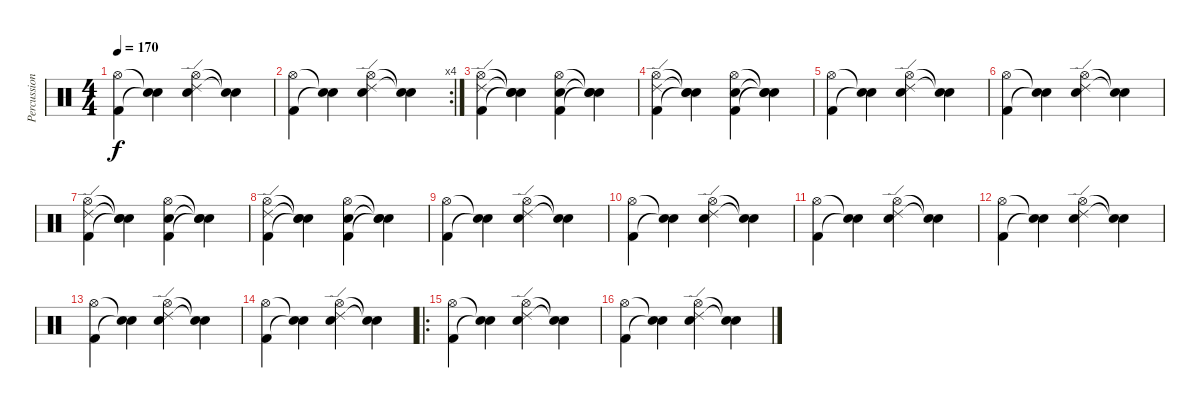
\track ("Percussion" "Percussion") {instrument percussion}
\staff {score}
\articulation defaults
\ts (4 4)
\tempo 170
\clef neutral
\ks c
("Hi-Hat (open)" "Kick (hit) 2").4{dy f} ("Electric Snare (hit)"{t} "Snare (hit)"{t}).4 ("Hi-Hat (open)" "Ride (edge) 2" "Electric Snare (hit)").4 ("Electric Snare (hit)"{t} "Snare (hit)"{t}).4 |
\rc 4
("Hi-Hat (open)" "Kick (hit) 2").4 ("Electric Snare (hit)"{t} "Snare (hit)"{t}).4 ("Hi-Hat (open)" "Ride (edge) 2" "Electric Snare (hit)").4 ("Electric Snare (hit)"{t} "Snare (hit)"{t}).4 |
("Ride (edge) 2" "Hi-Hat (open)" "Kick (hit) 2").4 ("Snare (hit)"{t} "Snare (hit)"{t} "Snare (hit)"{t}).4 ("Electric Snare (hit)" "Hi-Hat (open)" "Kick (hit) 2").4 ("Snare (hit)"{t} "Snare (hit)"{t} "Snare (hit)"{t}).4 |
("Ride (edge) 2" "Hi-Hat (open)" "Kick (hit) 2").4 ("Snare (hit)"{t} "Snare (hit)"{t} "Snare (hit)"{t}).4 ("Electric Snare (hit)" "Hi-Hat (open)" "Kick (hit) 2").4 ("Snare (hit)"{t} "Snare (hit)"{t} "Snare (hit)"{t}).4 |
("Hi-Hat (open)" "Kick (hit) 2").4 ("Electric Snare (hit)"{t} "Snare (hit)"{t}).4 ("Hi-Hat (open)" "Ride (edge) 2" "Electric Snare (hit)").4 ("Electric Snare (hit)"{t} "Snare (hit)"{t}).4 |
("Hi-Hat (open)" "Kick (hit) 2").4 ("Electric Snare (hit)"{t} "Snare (hit)"{t}).4 ("Hi-Hat (open)" "Ride (edge) 2" "Electric Snare (hit)").4 ("Electric Snare (hit)"{t} "Snare (hit)"{t}).4 |
("Ride (edge) 2" "Hi-Hat (open)" "Kick (hit) 2").4 ("Snare (hit)"{t} "Snare (hit)"{t} "Snare (hit)"{t}).4 ("Electric Snare (hit)" "Hi-Hat (open)" "Kick (hit) 2").4 ("Snare (hit)"{t} "Snare (hit)"{t} "Snare (hit)"{t}).4 |
("Ride (edge) 2" "Hi-Hat (open)" "Kick (hit) 2").4 ("Snare (hit)"{t} "Snare (hit)"{t} "Snare (hit)"{t}).4 ("Electric Snare (hit)" "Hi-Hat (open)" "Kick (hit) 2").4 ("Snare (hit)"{t} "Snare (hit)"{t} "Snare (hit)"{t}).4 |
("Hi-Hat (open)" "Kick (hit) 2").4 ("Electric Snare (hit)"{t} "Snare (hit)"{t}).4 ("Hi-Hat (open)" "Ride (edge) 2" "Electric Snare (hit)").4 ("Electric Snare (hit)"{t} "Snare (hit)"{t}).4 |
("Hi-Hat (open)" "Kick (hit) 2").4 ("Electric Snare (hit)"{t} "Snare (hit)"{t}).4 ("Hi-Hat (open)" "Ride (edge) 2" "Electric Snare (hit)").4 ("Electric Snare (hit)"{t} "Snare (hit)"{t}).4 |
("Hi-Hat (open)" "Kick (hit) 2").4 ("Electric Snare (hit)"{t} "Snare (hit)"{t}).4 ("Hi-Hat (open)" "Ride (edge) 2" "Electric Snare (hit)").4 ("Electric Snare (hit)"{t} "Snare (hit)"{t}).4 |
("Hi-Hat (open)" "Kick (hit) 2").4 ("Electric Snare (hit)"{t} "Snare (hit)"{t}).4 ("Hi-Hat (open)" "Ride (edge) 2" "Electric Snare (hit)").4 ("Electric Snare (hit)"{t} "Snare (hit)"{t}).4 |
("Hi-Hat (open)" "Kick (hit) 2").4 ("Electric Snare (hit)"{t} "Snare (hit)"{t}).4 ("Hi-Hat (open)" "Ride (edge) 2" "Electric Snare (hit)").4 ("Electric Snare (hit)"{t} "Snare (hit)"{t}).4 |
("Hi-Hat (open)" "Kick (hit) 2").4 ("Electric Snare (hit)"{t} "Snare (hit)"{t}).4 ("Hi-Hat (open)" "Ride (edge) 2" "Electric Snare (hit)").4 ("Electric Snare (hit)"{t} "Snare (hit)"{t}).4 |
\ro
("Hi-Hat (open)" "Kick (hit) 2").4 ("Electric Snare (hit)"{t} "Snare (hit)"{t}).4 ("Hi-Hat (open)" "Ride (edge) 2" "Electric Snare (hit)").4 ("Electric Snare (hit)"{t} "Snare (hit)"{t}).4 |
("Hi-Hat (open)" "Kick (hit) 2").4 ("Electric Snare (hit)"{t} "Snare (hit)"{t}).4 ("Hi-Hat (open)" "Ride (edge) 2" "Electric Snare (hit)").4 ("Electric Snare (hit)"{t} "Snare (hit)"{t}).4
